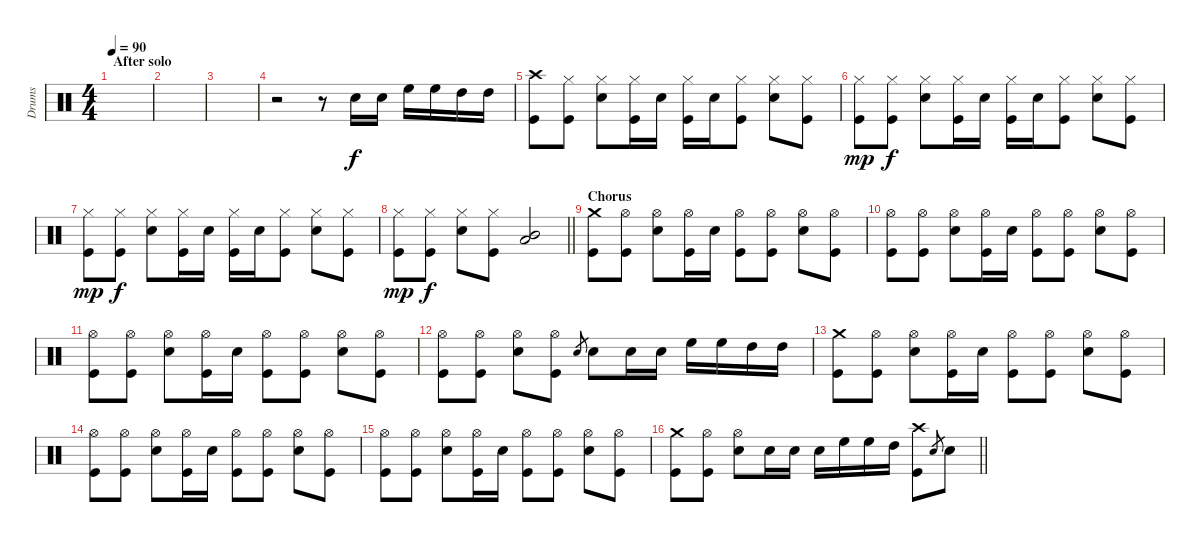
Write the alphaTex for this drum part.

\track ("Drums" "Drums") {instrument percussion}
\staff {score}
\articulation defaults
\ts (4 4)
\section ("" "After solo")
\tempo 90
\clef neutral
\ks c
|
|
|
r.2 r.8 "Snare (hit) 2".16 "Snare (hit) 2".16 "High Floor Tom (hit)".16 "High Floor Tom (hit)".16 "High Tom (hit)".16 "High Tom (hit)".16 |
("Kick (hit)" "Crash high (hit)").8 ("Hi-Hat (closed)" "Kick (hit)").8 ("Snare (hit) 2" "Hi-Hat (closed)").8 ("Kick (hit)" "Hi-Hat (closed)").16 "Snare (hit) 2".16 ("Kick (hit)" "Hi-Hat (closed)").16 "Snare (hit) 2".16 ("Kick (hit)" "Hi-Hat (closed)").8 ("Snare (hit) 2" "Hi-Hat (closed)").8 ("Kick (hit)" "Hi-Hat (closed)").8 |
("Kick (hit)" "Hi-Hat (closed)").8{dy mp} ("Hi-Hat (closed)" "Kick (hit)").8{dy f} ("Snare (hit) 2" "Hi-Hat (closed)").8 ("Kick (hit)" "Hi-Hat (closed)").16 "Snare (hit) 2".16 ("Kick (hit)" "Hi-Hat (closed)").16 "Snare (hit) 2".16 ("Kick (hit)" "Hi-Hat (closed)").8 ("Snare (hit) 2" "Hi-Hat (closed)").8 ("Kick (hit)" "Hi-Hat (closed)").8 |
("Kick (hit)" "Hi-Hat (closed)").8{dy mp} ("Hi-Hat (closed)" "Kick (hit)").8{dy f} ("Snare (hit) 2" "Hi-Hat (closed)").8 ("Kick (hit)" "Hi-Hat (closed)").16 "Snare (hit) 2".16 ("Kick (hit)" "Hi-Hat (closed)").16 "Snare (hit) 2".16 ("Kick (hit)" "Hi-Hat (closed)").8 ("Snare (hit) 2" "Hi-Hat (closed)").8 ("Kick (hit)" "Hi-Hat (closed)").8 |
\barLineRight lightlight
("Kick (hit)" "Hi-Hat (closed)").8{dy mp} ("Hi-Hat (closed)" "Kick (hit)").8{dy f} ("Snare (hit) 2" "Hi-Hat (closed)").8 ("Kick (hit)" "Hi-Hat (closed)").8 ("Mid Tom (hit)" "Low Tom (hit)").2 |
\section ("" "Chorus ")
("Kick (hit)" "Crash medium (hit)").8 ("Kick (hit)" "Hi-Hat (open)").8 ("Snare (hit) 2" "Hi-Hat (open)").8 ("Hi-Hat (open)" "Kick (hit)").16 "Snare (hit) 2".16 ("Kick (hit)" "Hi-Hat (open)").8 ("Kick (hit)" "Hi-Hat (open)").8 ("Snare (hit) 2" "Hi-Hat (open)").8 ("Kick (hit)" "Hi-Hat (open)").8 |
("Kick (hit)" "Hi-Hat (open)").8 ("Kick (hit)" "Hi-Hat (open)").8 ("Snare (hit) 2" "Hi-Hat (open)").8 ("Hi-Hat (open)" "Kick (hit)").16 "Snare (hit) 2".16 ("Kick (hit)" "Hi-Hat (open)").8 ("Kick (hit)" "Hi-Hat (open)").8 ("Snare (hit) 2" "Hi-Hat (open)").8 ("Kick (hit)" "Hi-Hat (open)").8 |
("Kick (hit)" "Hi-Hat (open)").8 ("Kick (hit)" "Hi-Hat (open)").8 ("Snare (hit) 2" "Hi-Hat (open)").8 ("Hi-Hat (open)" "Kick (hit)").16 "Snare (hit) 2".16 ("Kick (hit)" "Hi-Hat (open)").8 ("Kick (hit)" "Hi-Hat (open)").8 ("Snare (hit) 2" "Hi-Hat (open)").8 ("Kick (hit)" "Hi-Hat (open)").8 |
("Kick (hit)" "Hi-Hat (open)").8 ("Kick (hit)" "Hi-Hat (open)").8 ("Snare (hit) 2" "Hi-Hat (open)").8 ("Kick (hit)" "Hi-Hat (open)").8 "Snare (hit) 2".8{gr} "Snare (hit) 2".8 "Snare (hit) 2".16 "Snare (hit) 2".16 "High Floor Tom (hit)".16 "High Floor Tom (hit)".16 "High Tom (hit)".16 "High Tom (hit)".16 |
("Kick (hit)" "Crash medium (hit)").8 ("Kick (hit)" "Hi-Hat (open)").8 ("Snare (hit) 2" "Hi-Hat (open)").8 ("Hi-Hat (open)" "Kick (hit)").16 "Snare (hit) 2".16 ("Kick (hit)" "Hi-Hat (open)").8 ("Kick (hit)" "Hi-Hat (open)").8 ("Snare (hit) 2" "Hi-Hat (open)").8 ("Kick (hit)" "Hi-Hat (open)").8 |
("Kick (hit)" "Hi-Hat (open)").8 ("Kick (hit)" "Hi-Hat (open)").8 ("Snare (hit) 2" "Hi-Hat (open)").8 ("Hi-Hat (open)" "Kick (hit)").16 "Snare (hit) 2".16 ("Kick (hit)" "Hi-Hat (open)").8 ("Kick (hit)" "Hi-Hat (open)").8 ("Snare (hit) 2" "Hi-Hat (open)").8 ("Kick (hit)" "Hi-Hat (open)").8 |
("Kick (hit)" "Hi-Hat (open)").8 ("Kick (hit)" "Hi-Hat (open)").8 ("Snare (hit) 2" "Hi-Hat (open)").8 ("Hi-Hat (open)" "Kick (hit)").16 "Snare (hit) 2".16 ("Kick (hit)" "Hi-Hat (open)").8 ("Kick (hit)" "Hi-Hat (open)").8 ("Snare (hit) 2" "Hi-Hat (open)").8 ("Kick (hit)" "Hi-Hat (open)").8 |
\barLineRight lightlight
("Kick (hit)" "Crash medium (hit)").8 ("Kick (hit)" "Hi-Hat (open)").8 ("Snare (hit) 2" "Hi-Hat (open)").8 "Snare (hit) 2".16 "Snare (hit) 2".16 "Snare (hit) 2".16 "High Floor Tom (hit)".16 "High Floor Tom (hit)".16 "High Tom (hit)".16 ("Kick (hit)" "Crash high (hit)").8 "Snare (hit) 2".8{gr} "Snare (hit) 2".8
